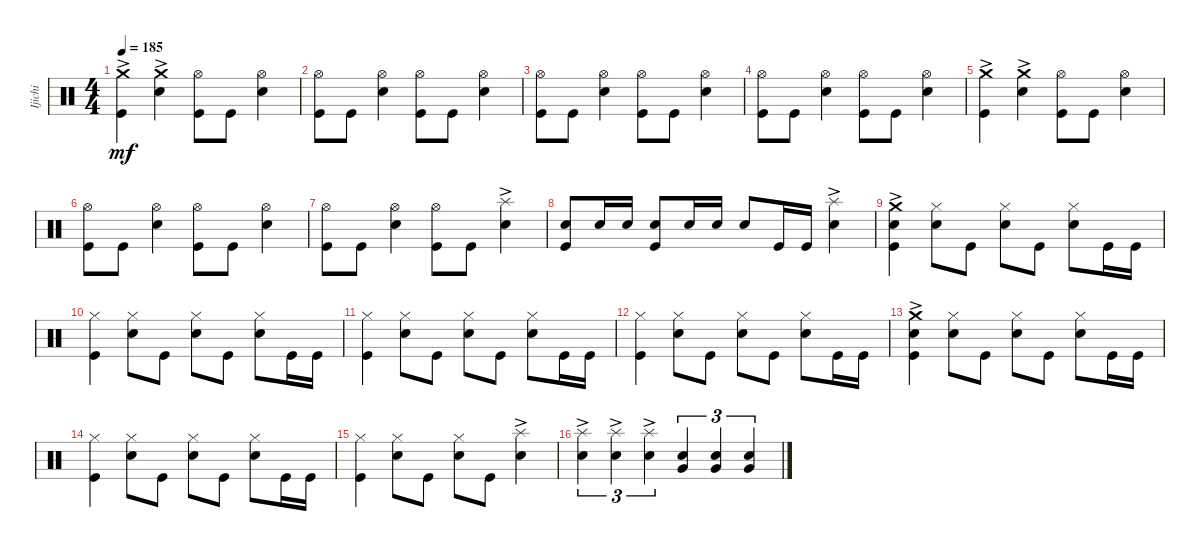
\track ("Ijichi" "Ijichi") {instrument percussion}
\staff {score}
\articulation defaults
\ts (4 4)
\tempo 185
\clef neutral
\ks c
("Crash medium (hit)"{ac} "Kick (hit)").4{dy mf} ("Crash medium (hit)"{ac} "Snare (hit) 2").4 ("Hi-Hat (open)" "Kick (hit)").8 "Kick (hit)".8 ("Hi-Hat (open)" "Snare (hit) 2").4 |
("Hi-Hat (open)" "Kick (hit)").8 "Kick (hit)".8 ("Hi-Hat (open)" "Snare (hit) 2").4 ("Hi-Hat (open)" "Kick (hit)").8 "Kick (hit)".8 ("Hi-Hat (open)" "Snare (hit) 2").4 |
("Hi-Hat (open)" "Kick (hit)").8 "Kick (hit)".8 ("Hi-Hat (open)" "Snare (hit) 2").4 ("Hi-Hat (open)" "Kick (hit)").8 "Kick (hit)".8 ("Hi-Hat (open)" "Snare (hit) 2").4 |
("Hi-Hat (open)" "Kick (hit)").8 "Kick (hit)".8 ("Hi-Hat (open)" "Snare (hit) 2").4 ("Hi-Hat (open)" "Kick (hit)").8 "Kick (hit)".8 ("Hi-Hat (open)" "Snare (hit) 2").4 |
("Crash medium (hit)"{ac} "Kick (hit)").4 ("Crash medium (hit)"{ac} "Snare (hit) 2").4 ("Hi-Hat (open)" "Kick (hit)").8 "Kick (hit)".8 ("Hi-Hat (open)" "Snare (hit) 2").4 |
("Hi-Hat (open)" "Kick (hit)").8 "Kick (hit)".8 ("Hi-Hat (open)" "Snare (hit) 2").4 ("Hi-Hat (open)" "Kick (hit)").8 "Kick (hit)".8 ("Hi-Hat (open)" "Snare (hit) 2").4 |
("Hi-Hat (open)" "Kick (hit)").8 "Kick (hit)".8 ("Hi-Hat (open)" "Snare (hit) 2").4 ("Hi-Hat (open)" "Kick (hit)").8 "Kick (hit)".8 ("Splash (hit)"{ac} "Snare (hit) 2").4 |
("Snare (hit) 2" "Kick (hit)").8 "Snare (hit) 2".16 "Snare (hit) 2".16 ("Snare (hit) 2" "Kick (hit)").8 "Snare (hit) 2".16 "Snare (hit) 2".16 "Snare (hit) 2".8 "Kick (hit)".16 "Kick (hit)".16 ("Splash (hit)"{ac} "Snare (hit) 2").4 |
("Crash medium (hit)"{ac} "Snare (hit) 2" "Kick (hit)").4 ("Hi-Hat (closed)" "Snare (hit) 2").8 "Kick (hit)".8 ("Hi-Hat (closed)" "Snare (hit) 2").8 "Kick (hit)".8 ("Hi-Hat (closed)" "Snare (hit) 2").8 "Kick (hit)".16 "Kick (hit)".16 |
("Hi-Hat (closed)" "Kick (hit)").4 ("Hi-Hat (closed)" "Snare (hit) 2").8 "Kick (hit)".8 ("Hi-Hat (closed)" "Snare (hit) 2").8 "Kick (hit)".8 ("Hi-Hat (closed)" "Snare (hit) 2").8 "Kick (hit)".16 "Kick (hit)".16 |
("Hi-Hat (closed)" "Kick (hit)").4 ("Hi-Hat (closed)" "Snare (hit) 2").8 "Kick (hit)".8 ("Hi-Hat (closed)" "Snare (hit) 2").8 "Kick (hit)".8 ("Hi-Hat (closed)" "Snare (hit) 2").8 "Kick (hit)".16 "Kick (hit)".16 |
("Hi-Hat (closed)" "Kick (hit)").4 ("Hi-Hat (closed)" "Snare (hit) 2").8 "Kick (hit)".8 ("Hi-Hat (closed)" "Snare (hit) 2").8 "Kick (hit)".8 ("Hi-Hat (closed)" "Snare (hit) 2").8 "Kick (hit)".16 "Kick (hit)".16 |
("Crash medium (hit)"{ac} "Snare (hit) 2" "Kick (hit)").4 ("Hi-Hat (closed)" "Snare (hit) 2").8 "Kick (hit)".8 ("Hi-Hat (closed)" "Snare (hit) 2").8 "Kick (hit)".8 ("Hi-Hat (closed)" "Snare (hit) 2").8 "Kick (hit)".16 "Kick (hit)".16 |
("Hi-Hat (closed)" "Kick (hit)").4 ("Hi-Hat (closed)" "Snare (hit) 2").8 "Kick (hit)".8 ("Hi-Hat (closed)" "Snare (hit) 2").8 "Kick (hit)".8 ("Hi-Hat (closed)" "Snare (hit) 2").8 "Kick (hit)".16 "Kick (hit)".16 |
("Hi-Hat (closed)" "Kick (hit)").4 ("Hi-Hat (closed)" "Snare (hit) 2").8 "Kick (hit)".8 ("Hi-Hat (closed)" "Snare (hit) 2").8 "Kick (hit)".8 ("Splash (hit)"{ac} "Snare (hit) 2").4 |
("Splash (hit)"{ac} "Snare (hit) 2").4{tu (3 2)} ("Splash (hit)"{ac} "Snare (hit) 2").4{tu (3 2)} ("Splash (hit)"{ac} "Snare (hit) 2").4{tu (3 2)} ("Snare (hit) 2" "Very Low Tom (hit)").4{tu (3 2)} ("Snare (hit) 2" "Very Low Tom (hit)").4{tu (3 2)} ("Snare (hit) 2" "Very Low Tom (hit)").4{tu (3 2)}
